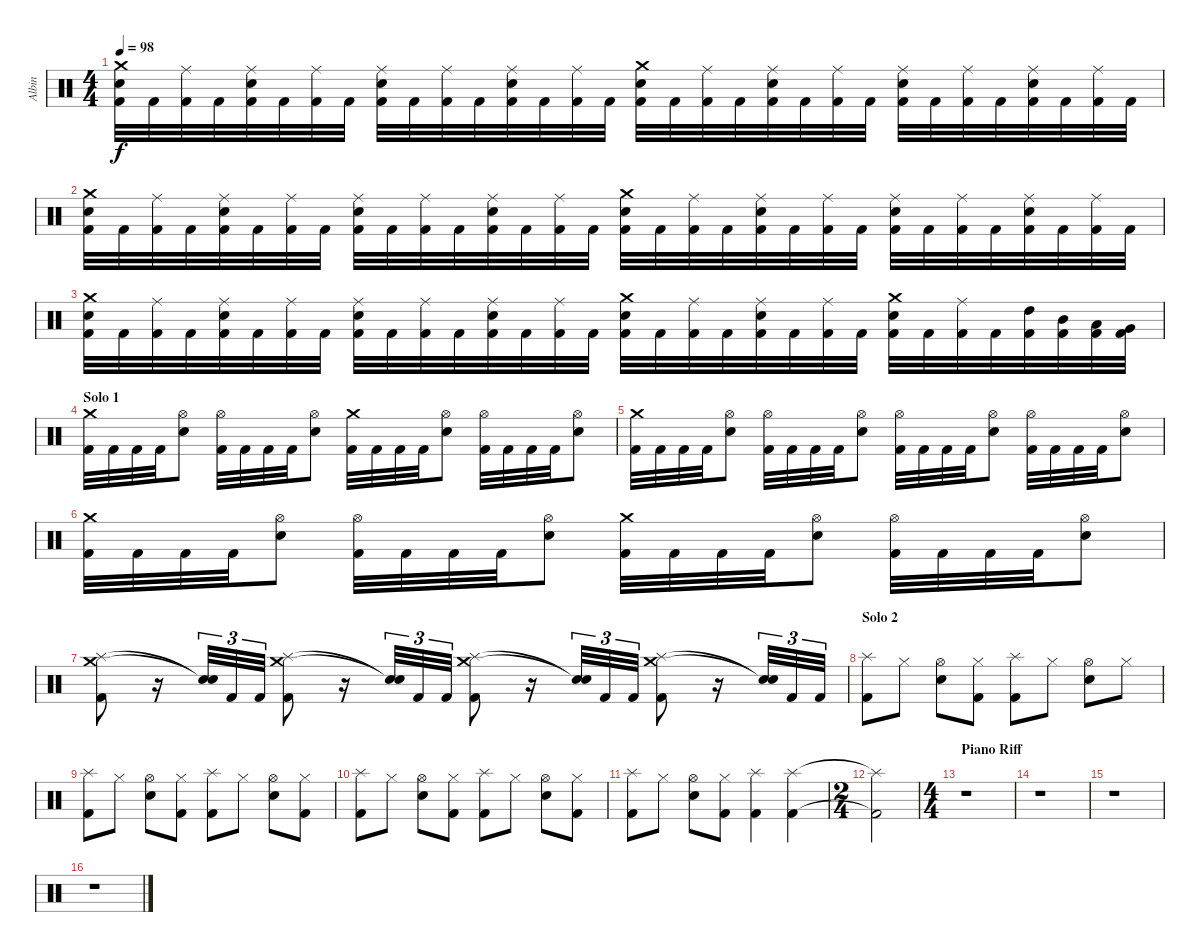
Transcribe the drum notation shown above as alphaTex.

\track ("Albin" "Albin") {instrument percussion}
\staff {score}
\articulation defaults
\ts (4 4)
\tempo 98
\clef neutral
\ks c
("Crash medium (hit)" "Electric Snare (hit)" "Kick (hit) 2").32{dy f} "Kick (hit) 2".32 ("Ride (middle)" "Kick (hit) 2").32 "Kick (hit) 2".32 ("Ride (middle)" "Electric Snare (hit)" "Kick (hit) 2").32 "Kick (hit) 2".32 ("Ride (middle)" "Kick (hit) 2").32 "Kick (hit) 2".32 ("Ride (middle)" "Electric Snare (hit)" "Kick (hit) 2").32 "Kick (hit) 2".32 ("Ride (middle)" "Kick (hit) 2").32 "Kick (hit) 2".32 ("Ride (middle)" "Electric Snare (hit)" "Kick (hit) 2").32 "Kick (hit) 2".32 ("Ride (middle)" "Kick (hit) 2").32 "Kick (hit) 2".32 ("Crash medium (hit)" "Electric Snare (hit)" "Kick (hit) 2").32 "Kick (hit) 2".32 ("Ride (middle)" "Kick (hit) 2").32 "Kick (hit) 2".32 ("Ride (middle)" "Electric Snare (hit)" "Kick (hit) 2").32 "Kick (hit) 2".32 ("Ride (middle)" "Kick (hit) 2").32 "Kick (hit) 2".32 ("Ride (middle)" "Electric Snare (hit)" "Kick (hit) 2").32 "Kick (hit) 2".32 ("Ride (middle)" "Kick (hit) 2").32 "Kick (hit) 2".32 ("Ride (middle)" "Electric Snare (hit)" "Kick (hit) 2").32 "Kick (hit) 2".32 ("Ride (middle)" "Kick (hit) 2").32 "Kick (hit) 2".32 |
("Crash medium (hit)" "Electric Snare (hit)" "Kick (hit) 2").32 "Kick (hit) 2".32 ("Ride (middle)" "Kick (hit) 2").32 "Kick (hit) 2".32 ("Ride (middle)" "Electric Snare (hit)" "Kick (hit) 2").32 "Kick (hit) 2".32 ("Ride (middle)" "Kick (hit) 2").32 "Kick (hit) 2".32 ("Ride (middle)" "Electric Snare (hit)" "Kick (hit) 2").32 "Kick (hit) 2".32 ("Ride (middle)" "Kick (hit) 2").32 "Kick (hit) 2".32 ("Ride (middle)" "Electric Snare (hit)" "Kick (hit) 2").32 "Kick (hit) 2".32 ("Ride (middle)" "Kick (hit) 2").32 "Kick (hit) 2".32 ("Crash medium (hit)" "Electric Snare (hit)" "Kick (hit) 2").32 "Kick (hit) 2".32 ("Ride (middle)" "Kick (hit) 2").32 "Kick (hit) 2".32 ("Ride (middle)" "Electric Snare (hit)" "Kick (hit) 2").32 "Kick (hit) 2".32 ("Ride (middle)" "Kick (hit) 2").32 "Kick (hit) 2".32 ("Ride (middle)" "Electric Snare (hit)" "Kick (hit) 2").32 "Kick (hit) 2".32 ("Ride (middle)" "Kick (hit) 2").32 "Kick (hit) 2".32 ("Ride (middle)" "Electric Snare (hit)" "Kick (hit) 2").32 "Kick (hit) 2".32 ("Ride (middle)" "Kick (hit) 2").32 "Kick (hit) 2".32 |
("Crash medium (hit)" "Electric Snare (hit)" "Kick (hit) 2").32 "Kick (hit) 2".32 ("Ride (middle)" "Kick (hit) 2").32 "Kick (hit) 2".32 ("Ride (middle)" "Electric Snare (hit)" "Kick (hit) 2").32 "Kick (hit) 2".32 ("Ride (middle)" "Kick (hit) 2").32 "Kick (hit) 2".32 ("Ride (middle)" "Electric Snare (hit)" "Kick (hit) 2").32 "Kick (hit) 2".32 ("Ride (middle)" "Kick (hit) 2").32 "Kick (hit) 2".32 ("Ride (middle)" "Electric Snare (hit)" "Kick (hit) 2").32 "Kick (hit) 2".32 ("Ride (middle)" "Kick (hit) 2").32 "Kick (hit) 2".32 ("Crash medium (hit)" "Electric Snare (hit)" "Kick (hit) 2").32 "Kick (hit) 2".32 ("Ride (middle)" "Kick (hit) 2").32 "Kick (hit) 2".32 ("Ride (middle)" "Electric Snare (hit)" "Kick (hit) 2").32 "Kick (hit) 2".32 ("Ride (middle)" "Kick (hit) 2").32 "Kick (hit) 2".32 ("Crash medium (hit)" "Electric Snare (hit)" "Kick (hit) 2").32 "Kick (hit) 2".32 ("Ride (middle)" "Kick (hit) 2").32 "Kick (hit) 2".32 ("High Tom (hit)" "Kick (hit) 2").32 ("Mid Tom (hit)" "Kick (hit) 2").32 ("Low Tom (hit)" "Kick (hit) 2").32 ("Very Low Tom (hit)" "Kick (hit) 2").32 |
\section ("" "Solo 1")
("Crash medium (hit)" "Kick (hit) 2").32 "Kick (hit) 2".32 "Kick (hit) 2".32 "Kick (hit) 2".32 ("Hi-Hat (open)" "Electric Snare (hit)").8 ("Hi-Hat (open)" "Kick (hit) 2").32 "Kick (hit) 2".32 "Kick (hit) 2".32 "Kick (hit) 2".32 ("Hi-Hat (open)" "Electric Snare (hit)").8 ("Crash medium (hit)" "Kick (hit) 2").32 "Kick (hit) 2".32 "Kick (hit) 2".32 "Kick (hit) 2".32 ("Hi-Hat (open)" "Electric Snare (hit)").8 ("Hi-Hat (open)" "Kick (hit) 2").32 "Kick (hit) 2".32 "Kick (hit) 2".32 "Kick (hit) 2".32 ("Hi-Hat (open)" "Electric Snare (hit)").8 |
("Crash medium (hit)" "Kick (hit) 2").32 "Kick (hit) 2".32 "Kick (hit) 2".32 "Kick (hit) 2".32 ("Hi-Hat (open)" "Electric Snare (hit)").8 ("Hi-Hat (open)" "Kick (hit) 2").32 "Kick (hit) 2".32 "Kick (hit) 2".32 "Kick (hit) 2".32 ("Hi-Hat (open)" "Electric Snare (hit)").8 ("Hi-Hat (open)" "Kick (hit) 2").32 "Kick (hit) 2".32 "Kick (hit) 2".32 "Kick (hit) 2".32 ("Hi-Hat (open)" "Electric Snare (hit)").8 ("Hi-Hat (open)" "Kick (hit) 2").32 "Kick (hit) 2".32 "Kick (hit) 2".32 "Kick (hit) 2".32 ("Hi-Hat (open)" "Electric Snare (hit)").8 |
("Crash medium (hit)" "Kick (hit) 2").32 "Kick (hit) 2".32 "Kick (hit) 2".32 "Kick (hit) 2".32 ("Hi-Hat (open)" "Electric Snare (hit)").8 ("Hi-Hat (open)" "Kick (hit) 2").32 "Kick (hit) 2".32 "Kick (hit) 2".32 "Kick (hit) 2".32 ("Hi-Hat (open)" "Electric Snare (hit)").8 ("Crash medium (hit)" "Kick (hit) 2").32 "Kick (hit) 2".32 "Kick (hit) 2".32 "Kick (hit) 2".32 ("Hi-Hat (open)" "Electric Snare (hit)").8 ("Hi-Hat (open)" "Kick (hit) 2").32 "Kick (hit) 2".32 "Kick (hit) 2".32 "Kick (hit) 2".32 ("Hi-Hat (open)" "Electric Snare (hit)").8 |
("Crash medium (hit)" "Splash (hit)" "Kick (hit) 2").8 r.16 ("Snare (hit)"{t} "Snare (hit)"{t}).32{tu (3 2)} "Kick (hit) 2".32{tu (3 2)} "Kick (hit) 2".32{tu (3 2)} ("Crash medium (hit)" "Splash (hit)" "Kick (hit) 2").8 r.16 ("Snare (hit)"{t} "Snare (hit)"{t}).32{tu (3 2)} "Kick (hit) 2".32{tu (3 2)} "Kick (hit) 2".32{tu (3 2)} ("Crash medium (hit)" "Splash (hit)" "Kick (hit) 2").8 r.16 ("Snare (hit)"{t} "Snare (hit)"{t}).32{tu (3 2)} "Kick (hit) 2".32{tu (3 2)} "Kick (hit) 2".32{tu (3 2)} ("Crash medium (hit)" "Splash (hit)" "Kick (hit) 2").8 r.16 ("Snare (hit)"{t} "Snare (hit)"{t}).32{tu (3 2)} "Kick (hit) 2".32{tu (3 2)} "Kick (hit) 2".32{tu (3 2)} |
\section ("" "Solo 2")
("Splash (hit)" "Kick (hit) 2").8 "Hi-Hat (closed)".8 ("Hi-Hat (open)" "Electric Snare (hit)").8 ("Hi-Hat (closed)" "Kick (hit) 2").8 ("Splash (hit)" "Kick (hit) 2").8 "Hi-Hat (closed)".8 ("Hi-Hat (open)" "Electric Snare (hit)").8 "Hi-Hat (closed)".8 |
("Splash (hit)" "Kick (hit) 2").8 "Hi-Hat (closed)".8 ("Hi-Hat (open)" "Electric Snare (hit)").8 ("Hi-Hat (closed)" "Kick (hit) 2").8 ("Splash (hit)" "Kick (hit) 2").8 "Hi-Hat (closed)".8 ("Hi-Hat (open)" "Electric Snare (hit)").8 ("Hi-Hat (closed)" "Kick (hit) 2").8 |
("Splash (hit)" "Kick (hit) 2").8 "Hi-Hat (closed)".8 ("Hi-Hat (open)" "Electric Snare (hit)").8 ("Hi-Hat (closed)" "Kick (hit) 2").8 ("Splash (hit)" "Kick (hit) 2").8 "Hi-Hat (closed)".8 ("Hi-Hat (open)" "Electric Snare (hit)").8 ("Hi-Hat (closed)" "Kick (hit) 2").8 |
("Splash (hit)" "Kick (hit) 2").8 "Hi-Hat (closed)".8 ("Hi-Hat (open)" "Electric Snare (hit)").8 ("Hi-Hat (closed)" "Kick (hit) 2").8 ("Splash (hit)" "Kick (hit) 2").4 ("Splash (hit)" "Kick (hit) 2").4 |
\ts (2 4)
("Splash (hit)"{t} "Kick (hit) 2"{t}).2 |
\ts (4 4)
\section ("" "Piano Riff")
r.1 |
r.1 |
r.1 |
r.1
